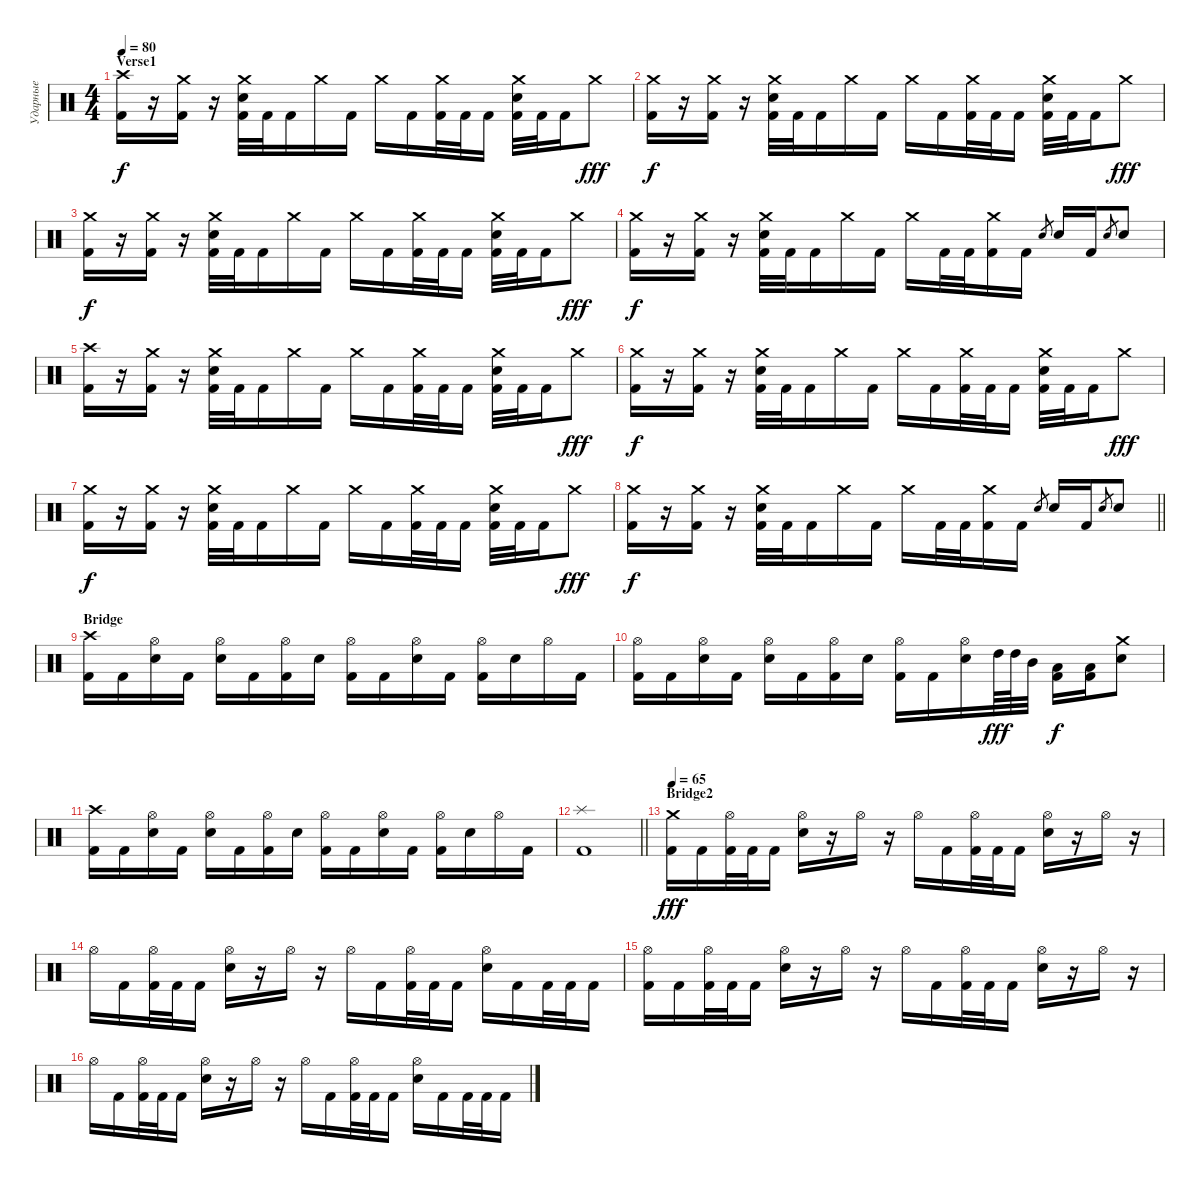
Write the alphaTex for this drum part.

\track ("Ударные" "Ударные") {instrument percussion}
\staff {score}
\articulation defaults
\ts (4 4)
\section ("" "Verse1")
\tempo 80
\clef neutral
\ks c
("Crash high (hit)" "Kick (hit) 2").16{dy f} r.16 ("Crash medium (hit)" "Kick (hit) 2").16 r.16 ("Crash medium (hit)" "Kick (hit) 2" "Electric Snare (hit)").32 "Kick (hit) 2".32 "Kick (hit) 2".16 "Crash medium (hit)".16 "Kick (hit) 2".16 "Crash medium (hit)".16 "Kick (hit) 2".16 ("Crash medium (hit)" "Kick (hit) 2").32 "Kick (hit) 2".32 "Kick (hit) 2".16 ("Crash medium (hit)" "Kick (hit) 2" "Electric Snare (hit)").32 "Kick (hit) 2".32 "Kick (hit) 2".16 "Crash medium (hit)".8{dy fff} |
("Crash medium (hit)" "Kick (hit) 2").16{dy f} r.16 ("Crash medium (hit)" "Kick (hit) 2").16 r.16 ("Crash medium (hit)" "Kick (hit) 2" "Electric Snare (hit)").32 "Kick (hit) 2".32 "Kick (hit) 2".16 "Crash medium (hit)".16 "Kick (hit) 2".16 "Crash medium (hit)".16 "Kick (hit) 2".16 ("Crash medium (hit)" "Kick (hit) 2").32 "Kick (hit) 2".32 "Kick (hit) 2".16 ("Crash medium (hit)" "Kick (hit) 2" "Electric Snare (hit)").32 "Kick (hit) 2".32 "Kick (hit) 2".16 "Crash medium (hit)".8{dy fff} |
("Crash medium (hit)" "Kick (hit) 2").16{dy f} r.16 ("Crash medium (hit)" "Kick (hit) 2").16 r.16 ("Crash medium (hit)" "Kick (hit) 2" "Electric Snare (hit)").32 "Kick (hit) 2".32 "Kick (hit) 2".16 "Crash medium (hit)".16 "Kick (hit) 2".16 "Crash medium (hit)".16 "Kick (hit) 2".16 ("Crash medium (hit)" "Kick (hit) 2").32 "Kick (hit) 2".32 "Kick (hit) 2".16 ("Crash medium (hit)" "Kick (hit) 2" "Electric Snare (hit)").32 "Kick (hit) 2".32 "Kick (hit) 2".16 "Crash medium (hit)".8{dy fff} |
("Crash medium (hit)" "Kick (hit) 2").16{dy f} r.16 ("Crash medium (hit)" "Kick (hit) 2").16 r.16 ("Crash medium (hit)" "Kick (hit) 2" "Electric Snare (hit)").32 "Kick (hit) 2".32 "Kick (hit) 2".16 "Crash medium (hit)".16 "Kick (hit) 2".16 "Crash medium (hit)".16 "Kick (hit) 2".32 "Kick (hit) 2".32 ("Crash medium (hit)" "Kick (hit) 2").16 "Kick (hit) 2".16 "Electric Snare (hit)".8{gr} "Electric Snare (hit)".16 "Kick (hit) 2".16 "Electric Snare (hit)".8{gr} "Electric Snare (hit)".8 |
("Crash high (hit)" "Kick (hit) 2").16 r.16 ("Crash medium (hit)" "Kick (hit) 2").16 r.16 ("Crash medium (hit)" "Kick (hit) 2" "Electric Snare (hit)").32 "Kick (hit) 2".32 "Kick (hit) 2".16 "Crash medium (hit)".16 "Kick (hit) 2".16 "Crash medium (hit)".16 "Kick (hit) 2".16 ("Crash medium (hit)" "Kick (hit) 2").32 "Kick (hit) 2".32 "Kick (hit) 2".16 ("Crash medium (hit)" "Kick (hit) 2" "Electric Snare (hit)").32 "Kick (hit) 2".32 "Kick (hit) 2".16 "Crash medium (hit)".8{dy fff} |
("Crash medium (hit)" "Kick (hit) 2").16{dy f} r.16 ("Crash medium (hit)" "Kick (hit) 2").16 r.16 ("Crash medium (hit)" "Kick (hit) 2" "Electric Snare (hit)").32 "Kick (hit) 2".32 "Kick (hit) 2".16 "Crash medium (hit)".16 "Kick (hit) 2".16 "Crash medium (hit)".16 "Kick (hit) 2".16 ("Crash medium (hit)" "Kick (hit) 2").32 "Kick (hit) 2".32 "Kick (hit) 2".16 ("Crash medium (hit)" "Kick (hit) 2" "Electric Snare (hit)").32 "Kick (hit) 2".32 "Kick (hit) 2".16 "Crash medium (hit)".8{dy fff} |
("Crash medium (hit)" "Kick (hit) 2").16{dy f} r.16 ("Crash medium (hit)" "Kick (hit) 2").16 r.16 ("Crash medium (hit)" "Kick (hit) 2" "Electric Snare (hit)").32 "Kick (hit) 2".32 "Kick (hit) 2".16 "Crash medium (hit)".16 "Kick (hit) 2".16 "Crash medium (hit)".16 "Kick (hit) 2".16 ("Crash medium (hit)" "Kick (hit) 2").32 "Kick (hit) 2".32 "Kick (hit) 2".16 ("Crash medium (hit)" "Kick (hit) 2" "Electric Snare (hit)").32 "Kick (hit) 2".32 "Kick (hit) 2".16 "Crash medium (hit)".8{dy fff} |
\barLineRight lightlight
("Crash medium (hit)" "Kick (hit) 2").16{dy f} r.16 ("Crash medium (hit)" "Kick (hit) 2").16 r.16 ("Crash medium (hit)" "Kick (hit) 2" "Electric Snare (hit)").32 "Kick (hit) 2".32 "Kick (hit) 2".16 "Crash medium (hit)".16 "Kick (hit) 2".16 "Crash medium (hit)".16 "Kick (hit) 2".32 "Kick (hit) 2".32 ("Crash medium (hit)" "Kick (hit) 2").16 "Kick (hit) 2".16 "Electric Snare (hit)".8{gr} "Electric Snare (hit)".16 "Kick (hit) 2".16 "Electric Snare (hit)".8{gr} "Electric Snare (hit)".8 |
\section ("" "Bridge")
("Crash high (hit)" "Kick (hit) 2").16 "Kick (hit) 2".16 ("Electric Snare (hit)" "Hi-Hat (open)").16 "Kick (hit) 2".16 ("Electric Snare (hit)" "Hi-Hat (open)").16 "Kick (hit) 2".16 ("Kick (hit) 2" "Hi-Hat (open)").16 "Electric Snare (hit)".16 ("Kick (hit) 2" "Hi-Hat (open)").16 "Kick (hit) 2".16 ("Electric Snare (hit)" "Hi-Hat (open)").16 "Kick (hit) 2".16 ("Kick (hit) 2" "Hi-Hat (open)").16 "Electric Snare (hit)".16 "Hi-Hat (open)".16 "Kick (hit) 2".16 |
("Hi-Hat (open)" "Kick (hit) 2").16 "Kick (hit) 2".16 ("Electric Snare (hit)" "Hi-Hat (open)").16 "Kick (hit) 2".16 ("Electric Snare (hit)" "Hi-Hat (open)").16 "Kick (hit) 2".16 ("Kick (hit) 2" "Hi-Hat (open)").16 "Electric Snare (hit)".16 ("Kick (hit) 2" "Hi-Hat (open)").16 "Kick (hit) 2".16 ("Electric Snare (hit)" "Hi-Hat (open)").16 "High Tom (hit)".64{dy fff} "High Tom (hit)".64 "Mid Tom (hit)".32 ("Kick (hit) 2" "Low Tom (hit)").16{dy f} ("Kick (hit) 2" "Low Tom (hit)").16 ("Crash medium (hit)" "Electric Snare (hit)").8 |
("Crash high (hit)" "Kick (hit) 2").16 "Kick (hit) 2".16 ("Electric Snare (hit)" "Hi-Hat (open)").16 "Kick (hit) 2".16 ("Electric Snare (hit)" "Hi-Hat (open)").16 "Kick (hit) 2".16 ("Kick (hit) 2" "Hi-Hat (open)").16 "Electric Snare (hit)".16 ("Kick (hit) 2" "Hi-Hat (open)").16 "Kick (hit) 2".16 ("Electric Snare (hit)" "Hi-Hat (open)").16 "Kick (hit) 2".16 ("Kick (hit) 2" "Hi-Hat (open)").16 "Electric Snare (hit)".16 "Hi-Hat (open)".16 "Kick (hit) 2".16 |
\barLineRight lightlight
("Splash (hit)" "Kick (hit) 2").1 |
\section ("" "Bridge2")
\tempo 65
("Kick (hit) 2" "Crash medium (hit)").16{dy fff} "Kick (hit) 2".16 ("Hi-Hat (open)" "Kick (hit) 2").32 "Kick (hit) 2".32 "Kick (hit) 2".16 ("Hi-Hat (open)" "Electric Snare (hit)").16 r.16 "Hi-Hat (open)".16 r.16 "Hi-Hat (open)".16 "Kick (hit) 2".16 ("Hi-Hat (open)" "Kick (hit) 2").32 "Kick (hit) 2".32 "Kick (hit) 2".16 ("Hi-Hat (open)" "Electric Snare (hit)").16 r.16 "Hi-Hat (open)".16 r.16 |
"Hi-Hat (open)".16 "Kick (hit) 2".16 ("Hi-Hat (open)" "Kick (hit) 2").32 "Kick (hit) 2".32 "Kick (hit) 2".16 ("Hi-Hat (open)" "Electric Snare (hit)").16 r.16 "Hi-Hat (open)".16 r.16 "Hi-Hat (open)".16 "Kick (hit) 2".16 ("Hi-Hat (open)" "Kick (hit) 2").32 "Kick (hit) 2".32 "Kick (hit) 2".16 ("Hi-Hat (open)" "Electric Snare (hit)").16 "Kick (hit) 2".16 "Kick (hit) 2".32 "Kick (hit) 2".32 "Kick (hit) 2".16 |
("Kick (hit) 2" "Hi-Hat (open)").16 "Kick (hit) 2".16 ("Hi-Hat (open)" "Kick (hit) 2").32 "Kick (hit) 2".32 "Kick (hit) 2".16 ("Hi-Hat (open)" "Electric Snare (hit)").16 r.16 "Hi-Hat (open)".16 r.16 "Hi-Hat (open)".16 "Kick (hit) 2".16 ("Hi-Hat (open)" "Kick (hit) 2").32 "Kick (hit) 2".32 "Kick (hit) 2".16 ("Hi-Hat (open)" "Electric Snare (hit)").16 r.16 "Hi-Hat (open)".16 r.16 |
"Hi-Hat (open)".16 "Kick (hit) 2".16 ("Hi-Hat (open)" "Kick (hit) 2").32 "Kick (hit) 2".32 "Kick (hit) 2".16 ("Hi-Hat (open)" "Electric Snare (hit)").16 r.16 "Hi-Hat (open)".16 r.16 "Hi-Hat (open)".16 "Kick (hit) 2".16 ("Hi-Hat (open)" "Kick (hit) 2").32 "Kick (hit) 2".32 "Kick (hit) 2".16 ("Hi-Hat (open)" "Electric Snare (hit)").16 "Kick (hit) 2".16 "Kick (hit) 2".32 "Kick (hit) 2".32 "Kick (hit) 2".16
